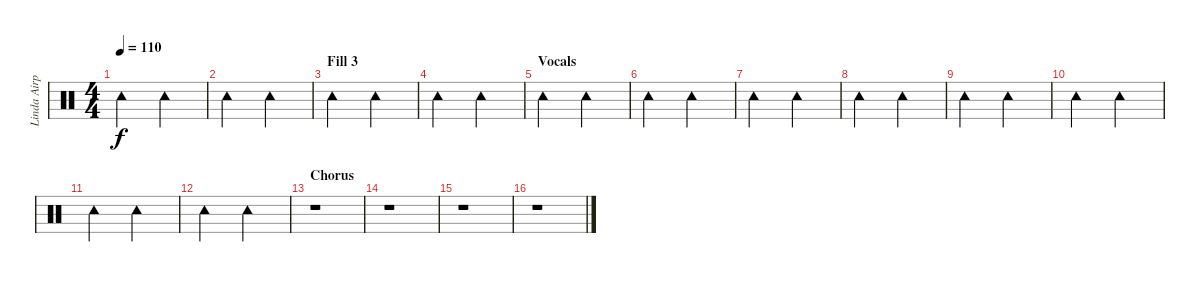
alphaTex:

\track ("Linda Airplane" "Linda Airp") {instrument percussion}
\staff {score}
\articulation defaults
\ts (4 4)
\tempo 110
\clef neutral
\ks c "Tambourine (hit)".2{dy f} "Tambourine (hit)".2
|
"Tambourine (hit)".2 "Tambourine (hit)".2 |
\section ("" "Fill 3")
"Tambourine (hit)".2 "Tambourine (hit)".2 |
"Tambourine (hit)".2 "Tambourine (hit)".2 |
\section ("" "Vocals")
"Tambourine (hit)".2 "Tambourine (hit)".2 |
"Tambourine (hit)".2 "Tambourine (hit)".2 |
"Tambourine (hit)".2 "Tambourine (hit)".2 |
"Tambourine (hit)".2 "Tambourine (hit)".2 |
"Tambourine (hit)".2 "Tambourine (hit)".2 |
"Tambourine (hit)".2 "Tambourine (hit)".2 |
"Tambourine (hit)".2 "Tambourine (hit)".2 |
"Tambourine (hit)".2 "Tambourine (hit)".2 |
\section ("" "Chorus")
r.1 |
r.1 |
r.1 |
r.1
